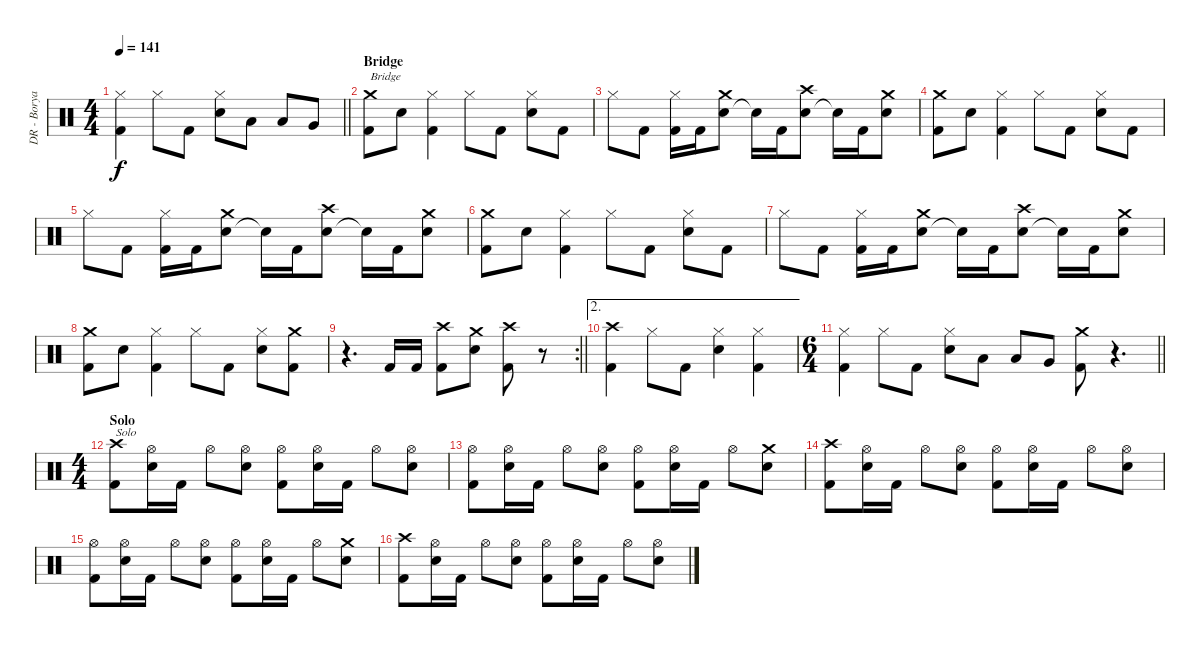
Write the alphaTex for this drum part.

\track ("DR - Borya" "DR - Borya") {instrument percussion}
\staff {score}
\articulation defaults
\ts (4 4)
\tempo 141
\clef neutral
\barLineRight lightlight
\ks c
("Kick (hit) 2" "Hi-Hat (closed)").4{dy f} "Hi-Hat (closed)".8 "Kick (hit) 2".8 ("Electric Snare (hit)" "Hi-Hat (closed)").8 "Low Tom (hit)".8 "Low Tom (hit)".8 "Very Low Tom (hit)".8 |
\section ("" "Bridge")
("Kick (hit) 2" "Crash medium (hit)").8{txt "Bridge"} "Electric Snare (hit)".8 ("Kick (hit) 2" "Hi-Hat (closed)").4 "Hi-Hat (closed)".8 "Kick (hit) 2".8 ("Electric Snare (hit)" "Hi-Hat (closed)").8 "Kick (hit) 2".8 |
"Hi-Hat (closed)".8 "Kick (hit) 2".8 ("Kick (hit) 2" "Hi-Hat (closed)").16 "Kick (hit) 2".16 ("Electric Snare (hit)" "Crash medium (hit)").8 "Snare (hit)"{t}.16 "Kick (hit) 2".16 ("Electric Snare (hit)" "Crash high (hit)").8 "Snare (hit)"{t}.16 "Kick (hit) 2".16 ("Electric Snare (hit)" "Crash medium (hit)").8 |
("Kick (hit) 2" "Crash medium (hit)").8 "Electric Snare (hit)".8 ("Kick (hit) 2" "Hi-Hat (closed)").4 "Hi-Hat (closed)".8 "Kick (hit) 2".8 ("Electric Snare (hit)" "Hi-Hat (closed)").8 "Kick (hit) 2".8 |
"Hi-Hat (closed)".8 "Kick (hit) 2".8 ("Kick (hit) 2" "Hi-Hat (closed)").16 "Kick (hit) 2".16 ("Electric Snare (hit)" "Crash medium (hit)").8 "Snare (hit)"{t}.16 "Kick (hit) 2".16 ("Electric Snare (hit)" "Crash high (hit)").8 "Snare (hit)"{t}.16 "Kick (hit) 2".16 ("Electric Snare (hit)" "Crash medium (hit)").8 |
("Kick (hit) 2" "Crash medium (hit)").8 "Electric Snare (hit)".8 ("Kick (hit) 2" "Hi-Hat (closed)").4 "Hi-Hat (closed)".8 "Kick (hit) 2".8 ("Electric Snare (hit)" "Hi-Hat (closed)").8 "Kick (hit) 2".8 |
"Hi-Hat (closed)".8 "Kick (hit) 2".8 ("Kick (hit) 2" "Hi-Hat (closed)").16 "Kick (hit) 2".16 ("Electric Snare (hit)" "Crash medium (hit)").8 "Snare (hit)"{t}.16 "Kick (hit) 2".16 ("Electric Snare (hit)" "Crash high (hit)").8 "Snare (hit)"{t}.16 "Kick (hit) 2".16 ("Electric Snare (hit)" "Crash medium (hit)").8 |
("Kick (hit) 2" "Crash medium (hit)").8 "Electric Snare (hit)".8 ("Kick (hit) 2" "Hi-Hat (closed)").4 "Hi-Hat (closed)".8 "Kick (hit) 2".8 ("Electric Snare (hit)" "Hi-Hat (closed)").8 ("Kick (hit) 2" "Crash medium (hit)").8 |
\rc 2
\barLineRight lightlight
r.4{d} "Kick (hit) 2".16 "Kick (hit) 2".16 ("Kick (hit) 2" "Crash high (hit)").8 ("Electric Snare (hit)" "Crash medium (hit)").8 ("Kick (hit) 2" "Crash high (hit)").8 r.8 |
\ae 2
("Kick (hit) 2" "Crash high (hit)").4 "Hi-Hat (closed)".8 "Kick (hit) 2".8 ("Electric Snare (hit)" "Hi-Hat (closed)").4 ("Kick (hit) 2" "Hi-Hat (closed)").4 |
\ts (6 4)
\barLineRight lightlight
("Kick (hit) 2" "Hi-Hat (closed)").4 "Hi-Hat (closed)".8 "Kick (hit) 2".8 ("Electric Snare (hit)" "Hi-Hat (closed)").8 "Low Tom (hit)".8 "Low Tom (hit)".8 "Very Low Tom (hit)".8 ("Kick (hit) 2" "Crash medium (hit)").8 r.4{d} |
\ts (4 4)
\section ("" "Solo")
("Kick (hit) 2" "Crash high (hit)").8{txt "Solo"} ("Electric Snare (hit)" "Hi-Hat (open)").16 "Kick (hit) 2".16 "Hi-Hat (open)".8 ("Electric Snare (hit)" "Hi-Hat (open)").8 ("Kick (hit) 2" "Hi-Hat (open)").8 ("Electric Snare (hit)" "Hi-Hat (open)").16 "Kick (hit) 2".16 "Hi-Hat (open)".8 ("Electric Snare (hit)" "Hi-Hat (open)").8 |
("Kick (hit) 2" "Hi-Hat (open)").8 ("Electric Snare (hit)" "Hi-Hat (open)").16 "Kick (hit) 2".16 "Hi-Hat (open)".8 ("Electric Snare (hit)" "Hi-Hat (open)").8 ("Kick (hit) 2" "Hi-Hat (open)").8 ("Electric Snare (hit)" "Hi-Hat (open)").16 "Kick (hit) 2".16 "Hi-Hat (open)".8 ("Electric Snare (hit)" "Crash medium (hit)").8 |
("Kick (hit) 2" "Crash high (hit)").8 ("Electric Snare (hit)" "Hi-Hat (open)").16 "Kick (hit) 2".16 "Hi-Hat (open)".8 ("Electric Snare (hit)" "Hi-Hat (open)").8 ("Kick (hit) 2" "Hi-Hat (open)").8 ("Electric Snare (hit)" "Hi-Hat (open)").16 "Kick (hit) 2".16 "Hi-Hat (open)".8 ("Electric Snare (hit)" "Hi-Hat (open)").8 |
("Kick (hit) 2" "Hi-Hat (open)").8 ("Electric Snare (hit)" "Hi-Hat (open)").16 "Kick (hit) 2".16 "Hi-Hat (open)".8 ("Electric Snare (hit)" "Hi-Hat (open)").8 ("Kick (hit) 2" "Hi-Hat (open)").8 ("Electric Snare (hit)" "Hi-Hat (open)").16 "Kick (hit) 2".16 "Hi-Hat (open)".8 ("Electric Snare (hit)" "Crash medium (hit)").8 |
("Kick (hit) 2" "Crash high (hit)").8 ("Electric Snare (hit)" "Hi-Hat (open)").16 "Kick (hit) 2".16 "Hi-Hat (open)".8 ("Electric Snare (hit)" "Hi-Hat (open)").8 ("Kick (hit) 2" "Hi-Hat (open)").8 ("Electric Snare (hit)" "Hi-Hat (open)").16 "Kick (hit) 2".16 "Hi-Hat (open)".8 ("Electric Snare (hit)" "Hi-Hat (open)").8
